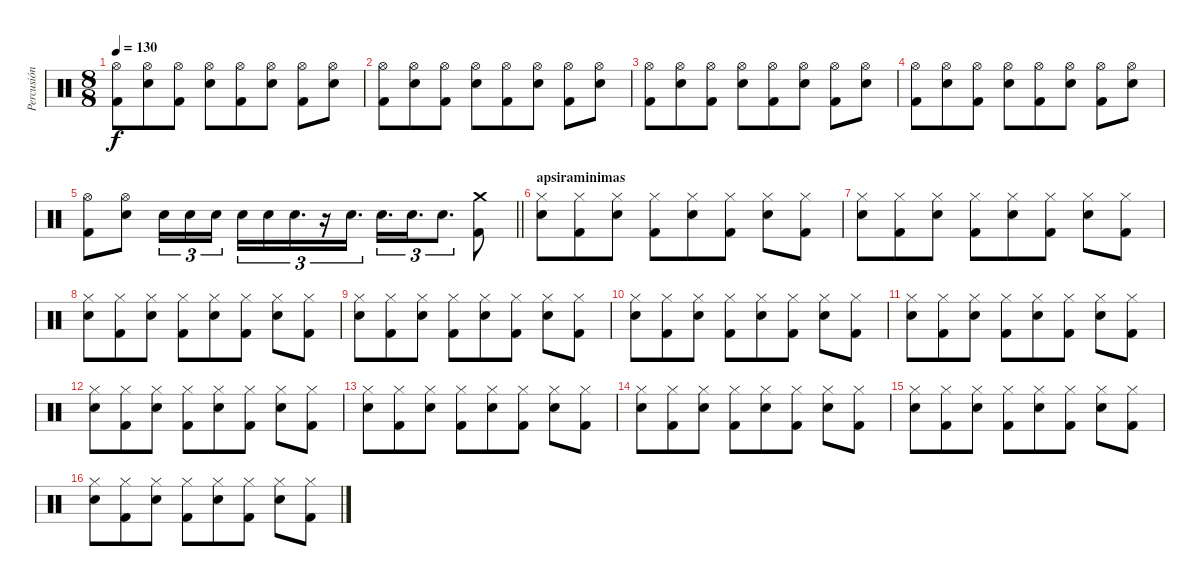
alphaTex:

\track ("Percusión" "Percusión") {instrument percussion}
\staff {score}
\articulation defaults
\ts (8 8)
\tempo 130
\clef neutral
\ks c
("Hi-Hat (open)" "Kick (hit) 2").8{dy f} ("Hi-Hat (open)" "Snare (hit) 2").8 ("Hi-Hat (open)" "Kick (hit) 2").8 ("Hi-Hat (open)" "Snare (hit) 2").8 ("Hi-Hat (open)" "Kick (hit) 2").8 ("Hi-Hat (open)" "Snare (hit) 2").8 ("Hi-Hat (open)" "Kick (hit) 2").8 ("Hi-Hat (open)" "Snare (hit) 2").8 |
("Hi-Hat (open)" "Kick (hit) 2").8 ("Hi-Hat (open)" "Snare (hit) 2").8 ("Hi-Hat (open)" "Kick (hit) 2").8 ("Hi-Hat (open)" "Snare (hit) 2").8 ("Hi-Hat (open)" "Kick (hit) 2").8 ("Hi-Hat (open)" "Snare (hit) 2").8 ("Hi-Hat (open)" "Kick (hit) 2").8 ("Hi-Hat (open)" "Snare (hit) 2").8 |
("Hi-Hat (open)" "Kick (hit) 2").8 ("Hi-Hat (open)" "Snare (hit) 2").8 ("Hi-Hat (open)" "Kick (hit) 2").8 ("Hi-Hat (open)" "Snare (hit) 2").8 ("Hi-Hat (open)" "Kick (hit) 2").8 ("Hi-Hat (open)" "Snare (hit) 2").8 ("Hi-Hat (open)" "Kick (hit) 2").8 ("Hi-Hat (open)" "Snare (hit) 2").8 |
("Hi-Hat (open)" "Kick (hit) 2").8 ("Hi-Hat (open)" "Snare (hit) 2").8 ("Hi-Hat (open)" "Kick (hit) 2").8 ("Hi-Hat (open)" "Snare (hit) 2").8 ("Hi-Hat (open)" "Kick (hit) 2").8 ("Hi-Hat (open)" "Snare (hit) 2").8 ("Hi-Hat (open)" "Kick (hit) 2").8 ("Hi-Hat (open)" "Snare (hit) 2").8 |
\barLineRight lightlight
("Hi-Hat (open)" "Kick (hit) 2").8 ("Hi-Hat (open)" "Snare (hit) 2").8 "Snare (hit) 2".16{tu (3 2)} "Snare (hit) 2".16{tu (3 2)} "Snare (hit) 2".16{tu (3 2)} "Snare (hit) 2".16{tu (3 2)} "Snare (hit) 2".16{tu (3 2)} "Snare (hit) 2".16{d tu (3 2)} r.16{tu (3 2)} "Snare (hit) 2".16{d tu (3 2)} "Snare (hit) 2".16{d tu (3 2)} "Snare (hit) 2".16{d tu (3 2)} "Snare (hit) 2".8{d tu (3 2)} ("Crash medium (hit)" "Kick (hit) 2").8 |
\section ("" "apsiraminimas")
("Hi-Hat (closed)" "Snare (hit) 2").8 ("Hi-Hat (closed)" "Kick (hit) 2").8 ("Hi-Hat (closed)" "Snare (hit) 2").8 ("Hi-Hat (closed)" "Kick (hit) 2").8 ("Hi-Hat (closed)" "Snare (hit) 2").8 ("Hi-Hat (closed)" "Kick (hit) 2").8 ("Hi-Hat (closed)" "Snare (hit) 2").8 ("Hi-Hat (closed)" "Kick (hit) 2").8 |
("Hi-Hat (closed)" "Snare (hit) 2").8 ("Hi-Hat (closed)" "Kick (hit) 2").8 ("Hi-Hat (closed)" "Snare (hit) 2").8 ("Hi-Hat (closed)" "Kick (hit) 2").8 ("Hi-Hat (closed)" "Snare (hit) 2").8 ("Hi-Hat (closed)" "Kick (hit) 2").8 ("Hi-Hat (closed)" "Snare (hit) 2").8 ("Hi-Hat (closed)" "Kick (hit) 2").8 |
("Hi-Hat (closed)" "Snare (hit) 2").8 ("Hi-Hat (closed)" "Kick (hit) 2").8 ("Hi-Hat (closed)" "Snare (hit) 2").8 ("Hi-Hat (closed)" "Kick (hit) 2").8 ("Hi-Hat (closed)" "Snare (hit) 2").8 ("Hi-Hat (closed)" "Kick (hit) 2").8 ("Hi-Hat (closed)" "Snare (hit) 2").8 ("Hi-Hat (closed)" "Kick (hit) 2").8 |
("Hi-Hat (closed)" "Snare (hit) 2").8 ("Hi-Hat (closed)" "Kick (hit) 2").8 ("Hi-Hat (closed)" "Snare (hit) 2").8 ("Hi-Hat (closed)" "Kick (hit) 2").8 ("Hi-Hat (closed)" "Snare (hit) 2").8 ("Hi-Hat (closed)" "Kick (hit) 2").8 ("Hi-Hat (closed)" "Snare (hit) 2").8 ("Hi-Hat (closed)" "Kick (hit) 2").8 |
("Hi-Hat (closed)" "Snare (hit) 2").8 ("Hi-Hat (closed)" "Kick (hit) 2").8 ("Hi-Hat (closed)" "Snare (hit) 2").8 ("Hi-Hat (closed)" "Kick (hit) 2").8 ("Hi-Hat (closed)" "Snare (hit) 2").8 ("Hi-Hat (closed)" "Kick (hit) 2").8 ("Hi-Hat (closed)" "Snare (hit) 2").8 ("Hi-Hat (closed)" "Kick (hit) 2").8 |
("Hi-Hat (closed)" "Snare (hit) 2").8 ("Hi-Hat (closed)" "Kick (hit) 2").8 ("Hi-Hat (closed)" "Snare (hit) 2").8 ("Hi-Hat (closed)" "Kick (hit) 2").8 ("Hi-Hat (closed)" "Snare (hit) 2").8 ("Hi-Hat (closed)" "Kick (hit) 2").8 ("Hi-Hat (closed)" "Snare (hit) 2").8 ("Hi-Hat (closed)" "Kick (hit) 2").8 |
("Hi-Hat (closed)" "Snare (hit) 2").8 ("Hi-Hat (closed)" "Kick (hit) 2").8 ("Hi-Hat (closed)" "Snare (hit) 2").8 ("Hi-Hat (closed)" "Kick (hit) 2").8 ("Hi-Hat (closed)" "Snare (hit) 2").8 ("Hi-Hat (closed)" "Kick (hit) 2").8 ("Hi-Hat (closed)" "Snare (hit) 2").8 ("Hi-Hat (closed)" "Kick (hit) 2").8 |
("Hi-Hat (closed)" "Snare (hit) 2").8 ("Hi-Hat (closed)" "Kick (hit) 2").8 ("Hi-Hat (closed)" "Snare (hit) 2").8 ("Hi-Hat (closed)" "Kick (hit) 2").8 ("Hi-Hat (closed)" "Snare (hit) 2").8 ("Hi-Hat (closed)" "Kick (hit) 2").8 ("Hi-Hat (closed)" "Snare (hit) 2").8 ("Hi-Hat (closed)" "Kick (hit) 2").8 |
("Hi-Hat (closed)" "Snare (hit) 2").8 ("Hi-Hat (closed)" "Kick (hit) 2").8 ("Hi-Hat (closed)" "Snare (hit) 2").8 ("Hi-Hat (closed)" "Kick (hit) 2").8 ("Hi-Hat (closed)" "Snare (hit) 2").8 ("Hi-Hat (closed)" "Kick (hit) 2").8 ("Hi-Hat (closed)" "Snare (hit) 2").8 ("Hi-Hat (closed)" "Kick (hit) 2").8 |
("Hi-Hat (closed)" "Snare (hit) 2").8 ("Hi-Hat (closed)" "Kick (hit) 2").8 ("Hi-Hat (closed)" "Snare (hit) 2").8 ("Hi-Hat (closed)" "Kick (hit) 2").8 ("Hi-Hat (closed)" "Snare (hit) 2").8 ("Hi-Hat (closed)" "Kick (hit) 2").8 ("Hi-Hat (closed)" "Snare (hit) 2").8 ("Hi-Hat (closed)" "Kick (hit) 2").8 |
("Hi-Hat (closed)" "Snare (hit) 2").8 ("Hi-Hat (closed)" "Kick (hit) 2").8 ("Hi-Hat (closed)" "Snare (hit) 2").8 ("Hi-Hat (closed)" "Kick (hit) 2").8 ("Hi-Hat (closed)" "Snare (hit) 2").8 ("Hi-Hat (closed)" "Kick (hit) 2").8 ("Hi-Hat (closed)" "Snare (hit) 2").8 ("Hi-Hat (closed)" "Kick (hit) 2").8
